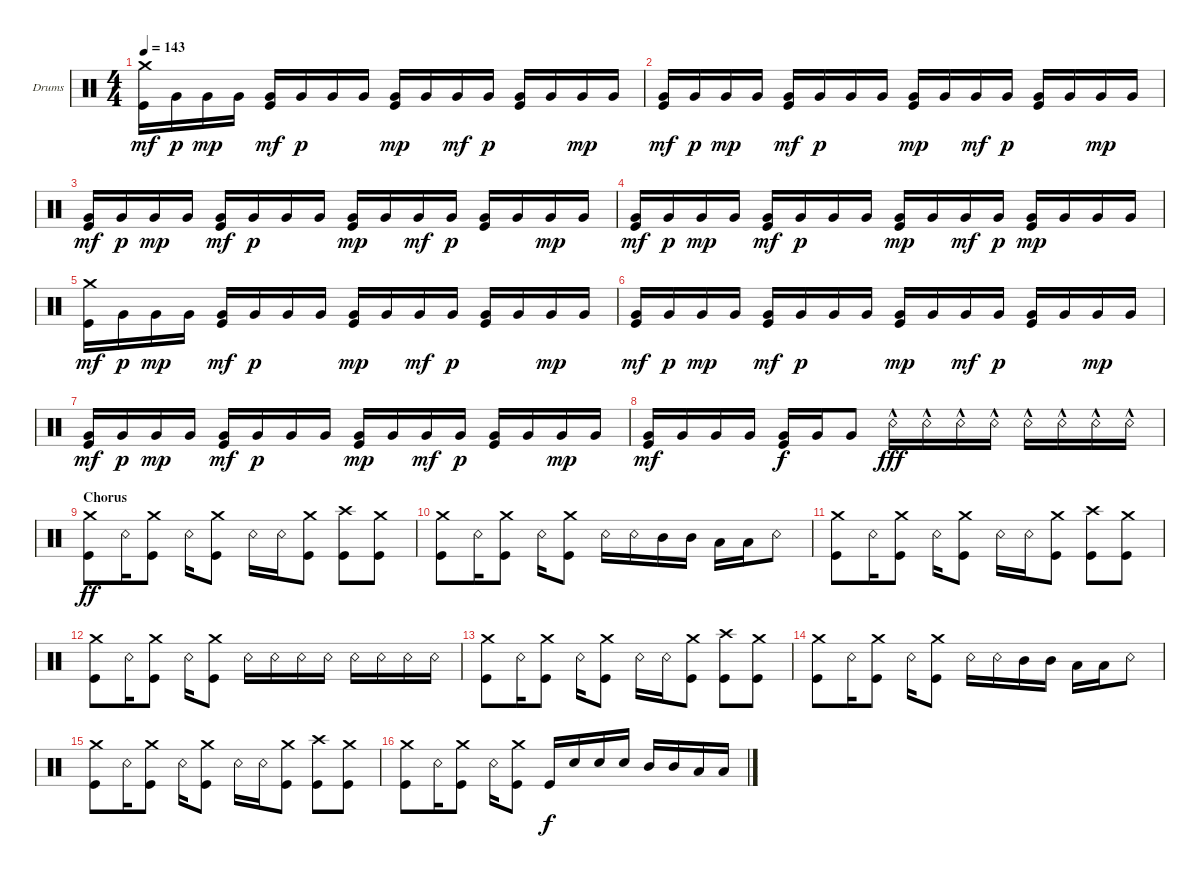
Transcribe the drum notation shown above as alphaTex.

\defaultSystemsLayout 4
\bracketExtendMode groupsimilarinstruments
\firstSystemTrackNameOrientation horizontal
\otherSystemsTrackNameOrientation horizontal
\track ("Nao - Drums" "Drums") {instrument percussion}
\staff {score}
\articulation defaults
\ts (4 4)
\tempo 143
\clef neutral
\ks c
("Kick (hit)" "Crash medium (hit)").16{dy mf} "Very Low Tom (hit)".16{dy p} "Very Low Tom (hit)".16{dy mp} "Very Low Tom (hit)".16 ("Very Low Tom (hit)" "Kick (hit)").16{dy mf} "Very Low Tom (hit)".16{dy p} "Very Low Tom (hit)".16 "Very Low Tom (hit)".16 ("Very Low Tom (hit)" "Kick (hit)").16{dy mp} "Very Low Tom (hit)".16 "Very Low Tom (hit)".16{dy mf} "Very Low Tom (hit)".16{dy p} ("Kick (hit)" "Very Low Tom (hit)").16 "Very Low Tom (hit)".16 "Very Low Tom (hit)".16{dy mp} "Very Low Tom (hit)".16 |
("Very Low Tom (hit)" "Kick (hit)").16{dy mf} "Very Low Tom (hit)".16{dy p} "Very Low Tom (hit)".16{dy mp} "Very Low Tom (hit)".16 ("Very Low Tom (hit)" "Kick (hit)").16{dy mf} "Very Low Tom (hit)".16{dy p} "Very Low Tom (hit)".16 "Very Low Tom (hit)".16 ("Very Low Tom (hit)" "Kick (hit)").16{dy mp} "Very Low Tom (hit)".16 "Very Low Tom (hit)".16{dy mf} "Very Low Tom (hit)".16{dy p} ("Kick (hit)" "Very Low Tom (hit)").16 "Very Low Tom (hit)".16 "Very Low Tom (hit)".16{dy mp} "Very Low Tom (hit)".16 |
("Very Low Tom (hit)" "Kick (hit)").16{dy mf} "Very Low Tom (hit)".16{dy p} "Very Low Tom (hit)".16{dy mp} "Very Low Tom (hit)".16 ("Very Low Tom (hit)" "Kick (hit)").16{dy mf} "Very Low Tom (hit)".16{dy p} "Very Low Tom (hit)".16 "Very Low Tom (hit)".16 ("Very Low Tom (hit)" "Kick (hit)").16{dy mp} "Very Low Tom (hit)".16 "Very Low Tom (hit)".16{dy mf} "Very Low Tom (hit)".16{dy p} ("Kick (hit)" "Very Low Tom (hit)").16 "Very Low Tom (hit)".16 "Very Low Tom (hit)".16{dy mp} "Very Low Tom (hit)".16 |
("Very Low Tom (hit)" "Kick (hit)").16{dy mf} "Very Low Tom (hit)".16{dy p} "Very Low Tom (hit)".16{dy mp} "Very Low Tom (hit)".16 ("Very Low Tom (hit)" "Kick (hit)").16{dy mf} "Very Low Tom (hit)".16{dy p} "Very Low Tom (hit)".16 "Very Low Tom (hit)".16 ("Very Low Tom (hit)" "Kick (hit)").16{dy mp} "Very Low Tom (hit)".16 "Very Low Tom (hit)".16{dy mf} "Very Low Tom (hit)".16{dy p} ("Kick (hit)" "Very Low Tom (hit)").16{dy mp} "Very Low Tom (hit)".16 "Very Low Tom (hit)".16 "Very Low Tom (hit)".16 |
("Kick (hit)" "Crash medium (hit)").16{dy mf} "Very Low Tom (hit)".16{dy p} "Very Low Tom (hit)".16{dy mp} "Very Low Tom (hit)".16 ("Very Low Tom (hit)" "Kick (hit)").16{dy mf} "Very Low Tom (hit)".16{dy p} "Very Low Tom (hit)".16 "Very Low Tom (hit)".16 ("Very Low Tom (hit)" "Kick (hit)").16{dy mp} "Very Low Tom (hit)".16 "Very Low Tom (hit)".16{dy mf} "Very Low Tom (hit)".16{dy p} ("Kick (hit)" "Very Low Tom (hit)").16 "Very Low Tom (hit)".16 "Very Low Tom (hit)".16{dy mp} "Very Low Tom (hit)".16 |
("Very Low Tom (hit)" "Kick (hit)").16{dy mf} "Very Low Tom (hit)".16{dy p} "Very Low Tom (hit)".16{dy mp} "Very Low Tom (hit)".16 ("Very Low Tom (hit)" "Kick (hit)").16{dy mf} "Very Low Tom (hit)".16{dy p} "Very Low Tom (hit)".16 "Very Low Tom (hit)".16 ("Very Low Tom (hit)" "Kick (hit)").16{dy mp} "Very Low Tom (hit)".16 "Very Low Tom (hit)".16{dy mf} "Very Low Tom (hit)".16{dy p} ("Kick (hit)" "Very Low Tom (hit)").16 "Very Low Tom (hit)".16 "Very Low Tom (hit)".16{dy mp} "Very Low Tom (hit)".16 |
("Very Low Tom (hit)" "Kick (hit)").16{dy mf} "Very Low Tom (hit)".16{dy p} "Very Low Tom (hit)".16{dy mp} "Very Low Tom (hit)".16 ("Very Low Tom (hit)" "Kick (hit)").16{dy mf} "Very Low Tom (hit)".16{dy p} "Very Low Tom (hit)".16 "Very Low Tom (hit)".16 ("Very Low Tom (hit)" "Kick (hit)").16{dy mp} "Very Low Tom (hit)".16 "Very Low Tom (hit)".16{dy mf} "Very Low Tom (hit)".16{dy p} ("Kick (hit)" "Very Low Tom (hit)").16 "Very Low Tom (hit)".16 "Very Low Tom (hit)".16{dy mp} "Very Low Tom (hit)".16 |
("Kick (hit)" "Very Low Tom (hit)").16{dy mf} "Very Low Tom (hit)".16 "Very Low Tom (hit)".16 "Very Low Tom (hit)".16 ("Very Low Tom (hit)" "Kick (hit)").16{dy f} "Very Low Tom (hit)".16 "Very Low Tom (hit)".8 "Snare (rim shot)"{hac}.16{dy fff} "Snare (rim shot)"{hac}.16 "Snare (rim shot)"{hac}.16 "Snare (rim shot)"{hac}.16 "Snare (rim shot)"{hac}.16 "Snare (rim shot)"{hac}.16 "Snare (rim shot)"{hac}.16 "Snare (rim shot)"{hac}.16 |
\section ("" "Chorus")
("Crash medium (hit)" "Kick (hit)").8{dy ff} "Snare (rim shot)".16 ("Crash medium (hit)" "Kick (hit)").8 "Snare (rim shot)".16 ("Crash medium (hit)" "Kick (hit)").8 "Snare (rim shot)".16 "Snare (rim shot)".16 ("Kick (hit)" "Crash medium (hit)").8 ("Crash high (hit)" "Kick (hit)").8 ("Crash medium (hit)" "Kick (hit)").8 |
("Crash medium (hit)" "Kick (hit)").8 "Snare (rim shot)".16 ("Crash medium (hit)" "Kick (hit)").8 "Snare (rim shot)".16 ("Crash medium (hit)" "Kick (hit)").8 "Snare (rim shot)".16 "Snare (rim shot)".16 "Mid Tom (hit)".16 "Mid Tom (hit)".16 "Low Tom (hit)".16 "Low Tom (hit)".16 "Snare (rim shot)".8 |
("Crash medium (hit)" "Kick (hit)").8 "Snare (rim shot)".16 ("Crash medium (hit)" "Kick (hit)").8 "Snare (rim shot)".16 ("Crash medium (hit)" "Kick (hit)").8 "Snare (rim shot)".16 "Snare (rim shot)".16 ("Kick (hit)" "Crash medium (hit)").8 ("Crash high (hit)" "Kick (hit)").8 ("Crash medium (hit)" "Kick (hit)").8 |
("Crash medium (hit)" "Kick (hit)").8 "Snare (rim shot)".16 ("Crash medium (hit)" "Kick (hit)").8 "Snare (rim shot)".16 ("Crash medium (hit)" "Kick (hit)").8 "Snare (rim shot)".16 "Snare (rim shot)".16 "Snare (rim shot)".16 "Snare (rim shot)".16 "Snare (rim shot)".16 "Snare (rim shot)".16 "Snare (rim shot)".16 "Snare (rim shot)".16 |
("Crash medium (hit)" "Kick (hit)").8 "Snare (rim shot)".16 ("Crash medium (hit)" "Kick (hit)").8 "Snare (rim shot)".16 ("Crash medium (hit)" "Kick (hit)").8 "Snare (rim shot)".16 "Snare (rim shot)".16 ("Kick (hit)" "Crash medium (hit)").8 ("Crash high (hit)" "Kick (hit)").8 ("Crash medium (hit)" "Kick (hit)").8 |
("Crash medium (hit)" "Kick (hit)").8 "Snare (rim shot)".16 ("Crash medium (hit)" "Kick (hit)").8 "Snare (rim shot)".16 ("Crash medium (hit)" "Kick (hit)").8 "Snare (rim shot)".16 "Snare (rim shot)".16 "Mid Tom (hit)".16 "Mid Tom (hit)".16 "Low Tom (hit)".16 "Low Tom (hit)".16 "Snare (rim shot)".8 |
("Crash medium (hit)" "Kick (hit)").8 "Snare (rim shot)".16 ("Crash medium (hit)" "Kick (hit)").8 "Snare (rim shot)".16 ("Crash medium (hit)" "Kick (hit)").8 "Snare (rim shot)".16 "Snare (rim shot)".16 ("Kick (hit)" "Crash medium (hit)").8 ("Crash high (hit)" "Kick (hit)").8 ("Crash medium (hit)" "Kick (hit)").8 |
("Crash medium (hit)" "Kick (hit)").8 "Snare (rim shot)".16 ("Crash medium (hit)" "Kick (hit)").8 "Snare (rim shot)".16 ("Crash medium (hit)" "Kick (hit)").8 "Kick (hit)".16{dy f} "Snare (hit) 2".16 "Snare (hit) 2".16 "Snare (hit) 2".16 "Mid Tom (hit)".16 "Mid Tom (hit)".16 "Low Tom (hit)".16 "Low Tom (hit)".16
